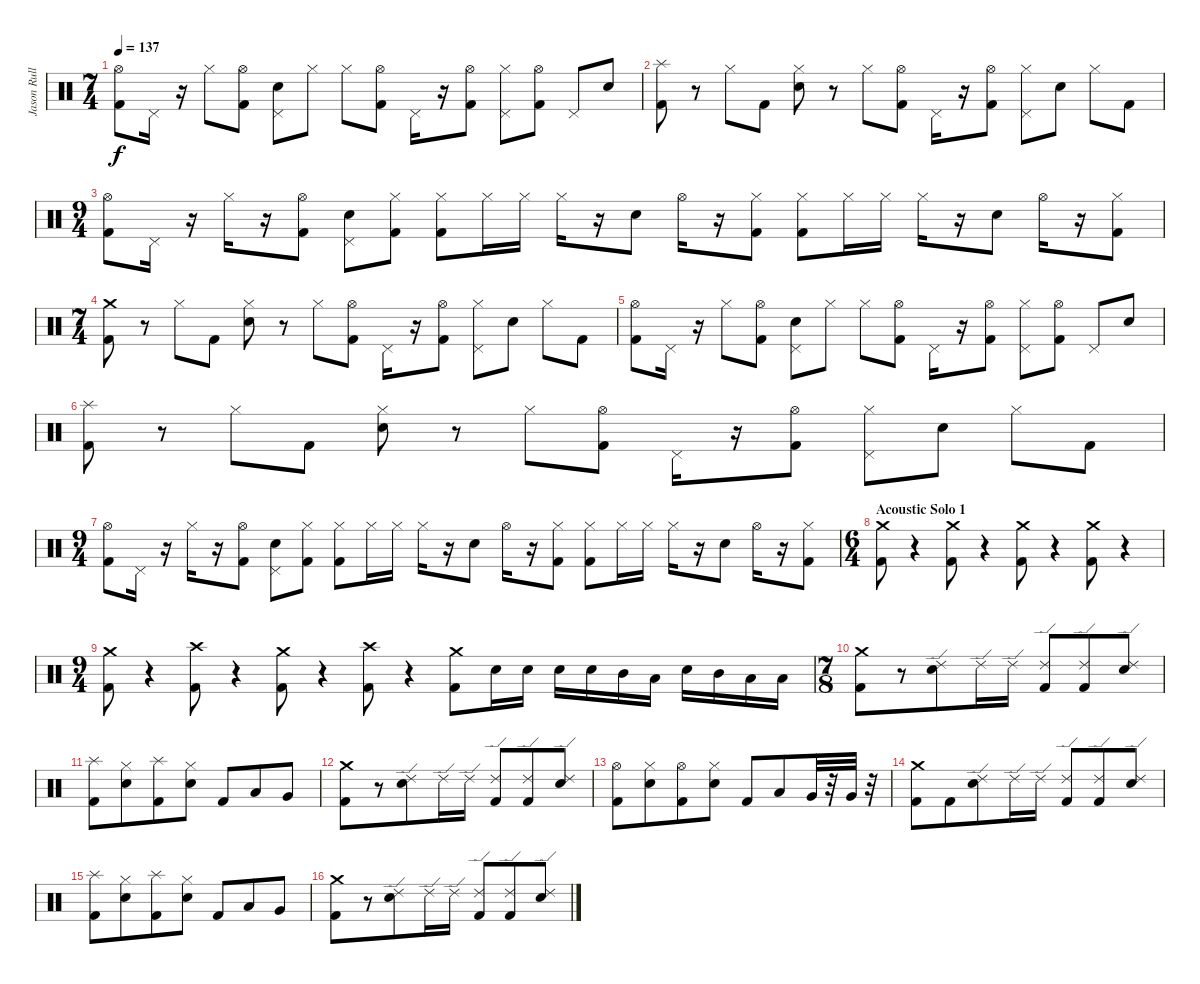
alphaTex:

\track ("Jason Rullo" "Jason Rull") {instrument percussion}
\staff {score}
\articulation defaults
\ts (7 4)
\tempo 137
\clef neutral
\ks c
("Hi-Hat (open)" "Kick (hit) 2").8{dy f} "Pedal Hi-Hat (hit)".16 r.16 "Hi-Hat (closed)".8 ("Hi-Hat (open)" "Kick (hit) 2").8 ("Pedal Hi-Hat (hit)" "Electric Snare (hit)").8 "Hi-Hat (closed)".8 "Hi-Hat (closed)".8 ("Hi-Hat (open)" "Kick (hit) 2").8 "Pedal Hi-Hat (hit)".16 r.16 ("Hi-Hat (open)" "Kick (hit) 2").8 ("Pedal Hi-Hat (hit)" "Hi-Hat (closed)").8 ("Hi-Hat (open)" "Kick (hit) 2").8 "Pedal Hi-Hat (hit)".8 "Electric Snare (hit)".8 |
("Splash (hit)" "Kick (hit) 2").8 r.8 "Hi-Hat (closed)".8 "Kick (hit) 2".8 ("Hi-Hat (closed)" "Electric Snare (hit)").8 r.8 "Hi-Hat (closed)".8 ("Hi-Hat (open)" "Kick (hit) 2").8 "Pedal Hi-Hat (hit)".16 r.16 ("Hi-Hat (open)" "Kick (hit) 2").8 ("Pedal Hi-Hat (hit)" "Hi-Hat (closed)").8 "Electric Snare (hit)".8 "Hi-Hat (closed)".8 "Kick (hit) 2".8 |
\ts (9 4)
("Hi-Hat (open)" "Kick (hit) 2").8 "Pedal Hi-Hat (hit)".16 r.16 "Hi-Hat (closed)".16 r.16 ("Hi-Hat (open)" "Kick (hit) 2").8 ("Pedal Hi-Hat (hit)" "Electric Snare (hit)").8 ("Hi-Hat (closed)" "Kick (hit) 2").8 ("Hi-Hat (closed)" "Kick (hit) 2").8 "Hi-Hat (closed)".16 "Hi-Hat (closed)".16 "Hi-Hat (closed)".16 r.16 "Electric Snare (hit)".8 "Hi-Hat (open)".16 r.16 ("Hi-Hat (closed)" "Kick (hit) 2").8 ("Hi-Hat (closed)" "Kick (hit) 2").8 "Hi-Hat (closed)".16 "Hi-Hat (closed)".16 "Hi-Hat (closed)".16 r.16 "Electric Snare (hit)".8 "Hi-Hat (open)".16 r.16 ("Hi-Hat (closed)" "Kick (hit) 2").8 |
\ts (7 4)
("Crash medium (hit)" "Kick (hit) 2").8 r.8 "Hi-Hat (closed)".8 "Kick (hit) 2".8 ("Hi-Hat (closed)" "Electric Snare (hit)").8 r.8 "Hi-Hat (closed)".8 ("Hi-Hat (open)" "Kick (hit) 2").8 "Pedal Hi-Hat (hit)".16 r.16 ("Hi-Hat (open)" "Kick (hit) 2").8 ("Pedal Hi-Hat (hit)" "Hi-Hat (closed)").8 "Electric Snare (hit)".8 "Hi-Hat (closed)".8 "Kick (hit) 2".8 |
("Hi-Hat (open)" "Kick (hit) 2").8 "Pedal Hi-Hat (hit)".16 r.16 "Hi-Hat (closed)".8 ("Hi-Hat (open)" "Kick (hit) 2").8 ("Pedal Hi-Hat (hit)" "Electric Snare (hit)").8 "Hi-Hat (closed)".8 "Hi-Hat (closed)".8 ("Hi-Hat (open)" "Kick (hit) 2").8 "Pedal Hi-Hat (hit)".16 r.16 ("Hi-Hat (open)" "Kick (hit) 2").8 ("Pedal Hi-Hat (hit)" "Hi-Hat (closed)").8 ("Hi-Hat (open)" "Kick (hit) 2").8 "Pedal Hi-Hat (hit)".8 "Electric Snare (hit)".8 |
("Splash (hit)" "Kick (hit) 2").8 r.8 "Hi-Hat (closed)".8 "Kick (hit) 2".8 ("Hi-Hat (closed)" "Electric Snare (hit)").8 r.8 "Hi-Hat (closed)".8 ("Hi-Hat (open)" "Kick (hit) 2").8 "Pedal Hi-Hat (hit)".16 r.16 ("Hi-Hat (open)" "Kick (hit) 2").8 ("Pedal Hi-Hat (hit)" "Hi-Hat (closed)").8 "Electric Snare (hit)".8 "Hi-Hat (closed)".8 "Kick (hit) 2".8 |
\ts (9 4)
("Hi-Hat (open)" "Kick (hit) 2").8 "Pedal Hi-Hat (hit)".16 r.16 "Hi-Hat (closed)".16 r.16 ("Hi-Hat (open)" "Kick (hit) 2").8 ("Pedal Hi-Hat (hit)" "Electric Snare (hit)").8 ("Hi-Hat (closed)" "Kick (hit) 2").8 ("Hi-Hat (closed)" "Kick (hit) 2").8 "Hi-Hat (closed)".16 "Hi-Hat (closed)".16 "Hi-Hat (closed)".16 r.16 "Electric Snare (hit)".8 "Hi-Hat (open)".16 r.16 ("Hi-Hat (closed)" "Kick (hit) 2").8 ("Hi-Hat (closed)" "Kick (hit) 2").8 "Hi-Hat (closed)".16 "Hi-Hat (closed)".16 "Hi-Hat (closed)".16 r.16 "Electric Snare (hit)".8 "Hi-Hat (open)".16 r.16 ("Hi-Hat (closed)" "Kick (hit) 2").8 |
\ts (6 4)
\section ("" "Acoustic Solo 1")
("Crash medium (hit)" "Kick (hit) 2").8 r.4 ("Crash medium (hit)" "Kick (hit) 2").8 r.4 ("Crash medium (hit)" "Kick (hit) 2").8 r.4 ("Crash medium (hit)" "Kick (hit) 2").8 r.4 |
\ts (9 4)
("Crash medium (hit)" "Kick (hit) 2").8 r.4 ("Crash high (hit)" "Kick (hit) 2").8 r.4 ("Crash medium (hit)" "Kick (hit) 2").8 r.4 ("Crash high (hit)" "Kick (hit) 2").8 r.4 ("Crash medium (hit)" "Kick (hit) 2").8 "Electric Snare (hit)".16 "Electric Snare (hit)".16 "Electric Snare (hit)".16 "Electric Snare (hit)".16 "Mid Tom (hit)".16 "Low Tom (hit)".16 "Electric Snare (hit)".16 "Mid Tom (hit)".16 "Low Tom (hit)".16 "Low Floor Tom (hit)".16 |
\ts (7 8)
("Crash medium (hit)" "Kick (hit) 2").8 r.8 ("Ride (edge) 2" "Electric Snare (hit)").8 "Ride (edge) 2".16 "Ride (edge) 2".16 ("Ride (edge) 2" "Kick (hit) 2").8 ("Ride (edge) 2" "Kick (hit) 2").8 ("Ride (edge) 2" "Electric Snare (hit)").8 |
("Splash (hit)" "Kick (hit) 2").8 ("Hi-Hat (closed)" "Electric Snare (hit)").8 ("Splash (hit)" "Kick (hit) 2").8 ("Hi-Hat (closed)" "Electric Snare (hit)").8 "Kick (hit) 2".8 "Low Tom (hit)".8 "Very Low Tom (hit)".8 |
("Crash medium (hit)" "Kick (hit) 2").8 r.8 ("Ride (edge) 2" "Electric Snare (hit)").8 "Ride (edge) 2".16 "Ride (edge) 2".16 ("Ride (edge) 2" "Kick (hit) 2").8 ("Ride (edge) 2" "Kick (hit) 2").8 ("Ride (edge) 2" "Electric Snare (hit)").8 |
("Hi-Hat (open)" "Kick (hit) 2").8 ("Hi-Hat (closed)" "Electric Snare (hit)").8 ("Hi-Hat (open)" "Kick (hit) 2").8 ("Hi-Hat (closed)" "Electric Snare (hit)").8 "Kick (hit) 2".8 "Low Tom (hit)".8 "Very Low Tom (hit)".32 r.32 "Very Low Tom (hit)".32 r.32 |
("Crash medium (hit)" "Kick (hit) 2").8 "Kick (hit) 2".8 ("Ride (edge) 2" "Electric Snare (hit)").8 "Ride (edge) 2".16 "Ride (edge) 2".16 ("Ride (edge) 2" "Kick (hit) 2").8 ("Ride (edge) 2" "Kick (hit) 2").8 ("Ride (edge) 2" "Electric Snare (hit)").8 |
("Splash (hit)" "Kick (hit) 2").8 ("Hi-Hat (closed)" "Electric Snare (hit)").8 ("Splash (hit)" "Kick (hit) 2").8 ("Hi-Hat (closed)" "Electric Snare (hit)").8 "Kick (hit) 2".8 "Low Tom (hit)".8 "Very Low Tom (hit)".8 |
("Crash medium (hit)" "Kick (hit) 2").8 r.8 ("Ride (edge) 2" "Electric Snare (hit)").8 "Ride (edge) 2".16 "Ride (edge) 2".16 ("Ride (edge) 2" "Kick (hit) 2").8 ("Ride (edge) 2" "Kick (hit) 2").8 ("Ride (edge) 2" "Electric Snare (hit)").8
